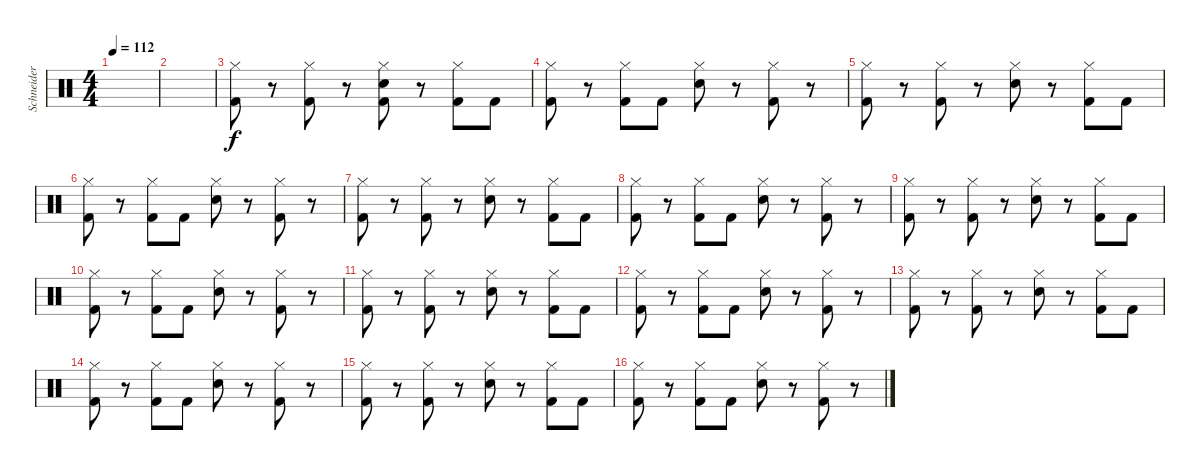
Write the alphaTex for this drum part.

\track ("Schneider - Drums" "Schneider ") {instrument percussion}
\staff {score}
\articulation defaults
\ts (4 4)
\tempo 112
\clef neutral
\ks c
|
|
("Hi-Hat (closed)" "Kick (hit) 2").8{dy f} r.8 ("Hi-Hat (closed)" "Kick (hit) 2").8 r.8 ("Hi-Hat (closed)" "Snare (hit) 2" "Kick (hit) 2").8 r.8 ("Hi-Hat (closed)" "Kick (hit) 2").8 "Kick (hit) 2".8 |
("Hi-Hat (closed)" "Kick (hit) 2").8 r.8 ("Hi-Hat (closed)" "Kick (hit) 2").8 "Kick (hit) 2".8 ("Hi-Hat (closed)" "Snare (hit) 2").8 r.8 ("Hi-Hat (closed)" "Kick (hit) 2").8 r.8 |
("Hi-Hat (closed)" "Kick (hit) 2").8 r.8 ("Hi-Hat (closed)" "Kick (hit) 2").8 r.8 ("Hi-Hat (closed)" "Snare (hit) 2").8 r.8 ("Hi-Hat (closed)" "Kick (hit) 2").8 "Kick (hit) 2".8 |
("Hi-Hat (closed)" "Kick (hit) 2").8 r.8 ("Hi-Hat (closed)" "Kick (hit) 2").8 "Kick (hit) 2".8 ("Hi-Hat (closed)" "Snare (hit) 2").8 r.8 ("Hi-Hat (closed)" "Kick (hit) 2").8 r.8 |
("Hi-Hat (closed)" "Kick (hit) 2").8 r.8 ("Hi-Hat (closed)" "Kick (hit) 2").8 r.8 ("Hi-Hat (closed)" "Snare (hit) 2").8 r.8 ("Hi-Hat (closed)" "Kick (hit) 2").8 "Kick (hit) 2".8 |
("Hi-Hat (closed)" "Kick (hit) 2").8 r.8 ("Hi-Hat (closed)" "Kick (hit) 2").8 "Kick (hit) 2".8 ("Hi-Hat (closed)" "Snare (hit) 2").8 r.8 ("Hi-Hat (closed)" "Kick (hit) 2").8 r.8 |
("Hi-Hat (closed)" "Kick (hit) 2").8 r.8 ("Hi-Hat (closed)" "Kick (hit) 2").8 r.8 ("Hi-Hat (closed)" "Snare (hit) 2").8 r.8 ("Hi-Hat (closed)" "Kick (hit) 2").8 "Kick (hit) 2".8 |
("Hi-Hat (closed)" "Kick (hit) 2").8 r.8 ("Hi-Hat (closed)" "Kick (hit) 2").8 "Kick (hit) 2".8 ("Hi-Hat (closed)" "Snare (hit) 2").8 r.8 ("Hi-Hat (closed)" "Kick (hit) 2").8 r.8 |
("Hi-Hat (closed)" "Kick (hit) 2").8 r.8 ("Hi-Hat (closed)" "Kick (hit) 2").8 r.8 ("Hi-Hat (closed)" "Snare (hit) 2").8 r.8 ("Hi-Hat (closed)" "Kick (hit) 2").8 "Kick (hit) 2".8 |
("Hi-Hat (closed)" "Kick (hit) 2").8 r.8 ("Hi-Hat (closed)" "Kick (hit) 2").8 "Kick (hit) 2".8 ("Hi-Hat (closed)" "Snare (hit) 2").8 r.8 ("Hi-Hat (closed)" "Kick (hit) 2").8 r.8 |
("Hi-Hat (closed)" "Kick (hit) 2").8 r.8 ("Hi-Hat (closed)" "Kick (hit) 2").8 r.8 ("Hi-Hat (closed)" "Snare (hit) 2").8 r.8 ("Hi-Hat (closed)" "Kick (hit) 2").8 "Kick (hit) 2".8 |
("Hi-Hat (closed)" "Kick (hit) 2").8 r.8 ("Hi-Hat (closed)" "Kick (hit) 2").8 "Kick (hit) 2".8 ("Hi-Hat (closed)" "Snare (hit) 2").8 r.8 ("Hi-Hat (closed)" "Kick (hit) 2").8 r.8 |
("Hi-Hat (closed)" "Kick (hit) 2").8 r.8 ("Hi-Hat (closed)" "Kick (hit) 2").8 r.8 ("Hi-Hat (closed)" "Snare (hit) 2").8 r.8 ("Hi-Hat (closed)" "Kick (hit) 2").8 "Kick (hit) 2".8 |
("Hi-Hat (closed)" "Kick (hit) 2").8 r.8 ("Hi-Hat (closed)" "Kick (hit) 2").8 "Kick (hit) 2".8 ("Hi-Hat (closed)" "Snare (hit) 2").8 r.8 ("Hi-Hat (closed)" "Kick (hit) 2").8 r.8
